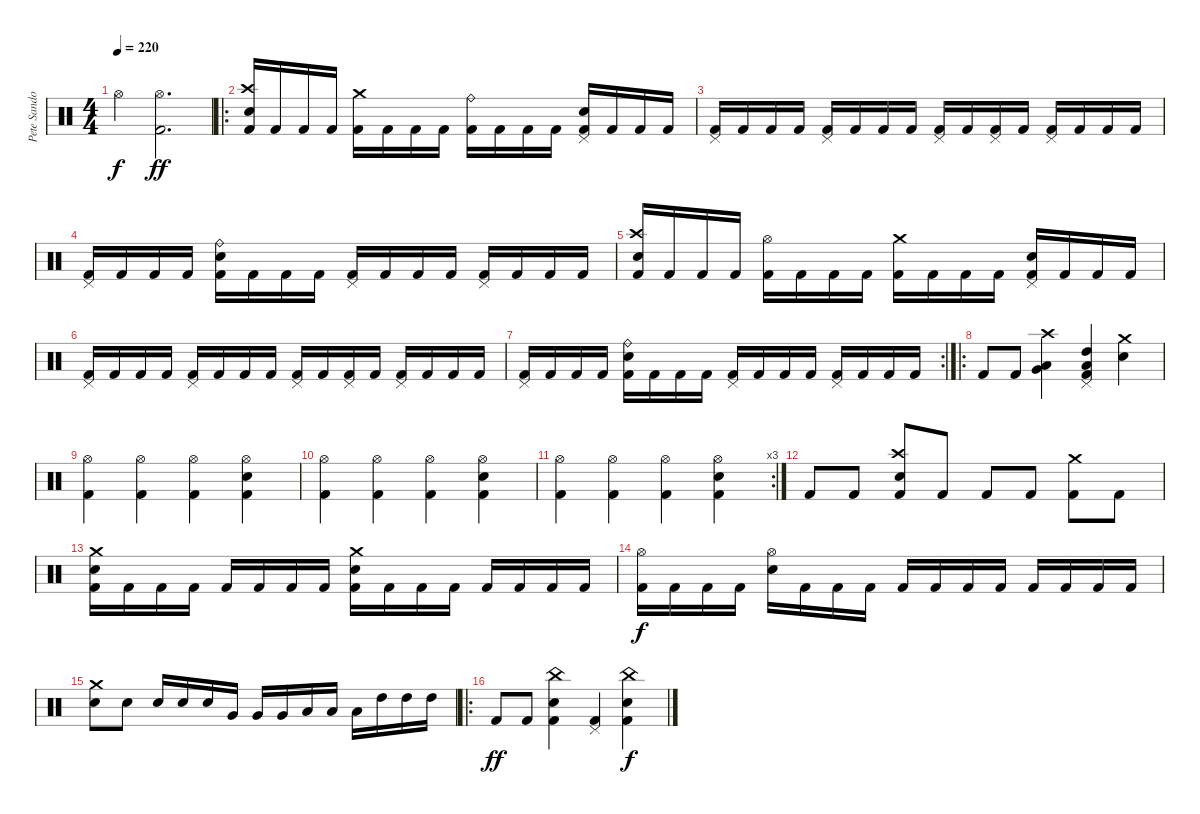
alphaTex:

\track ("Pete Sandoval" "Pete Sando") {instrument percussion}
\staff {score}
\articulation defaults
\ts (4 4)
\tempo 220
\clef neutral
\ks c "Hi-Hat (open)"{t}.4{dy f}
("Hi-Hat (open)" "Kick (hit) 2").2{d dy ff} |
\ro
("Crash high (hit)" "Electric Snare (hit)" "Kick (hit) 2").16 "Kick (hit) 2".16 "Kick (hit) 2".16 "Kick (hit) 2".16 ("Crash medium (hit)" "Kick (hit) 2").16 "Kick (hit) 2".16 "Kick (hit) 2".16 "Kick (hit) 2".16 ("Ride (bell)" "Kick (hit) 2").16 "Kick (hit) 2".16 "Kick (hit) 2".16 "Kick (hit) 2".16 ("Pedal Hi-Hat (hit)" "Electric Snare (hit)" "Kick (hit) 2").16 "Kick (hit) 2".16 "Kick (hit) 2".16 "Kick (hit) 2".16 |
("Pedal Hi-Hat (hit)" "Kick (hit) 2").16 "Kick (hit) 2".16 "Kick (hit) 2".16 "Kick (hit) 2".16 ("Pedal Hi-Hat (hit)" "Kick (hit) 2").16 "Kick (hit) 2".16 "Kick (hit) 2".16 "Kick (hit) 2".16 ("Pedal Hi-Hat (hit)" "Kick (hit) 2").16 "Kick (hit) 2".16 ("Pedal Hi-Hat (hit)" "Kick (hit) 2").16 "Kick (hit) 2".16 ("Pedal Hi-Hat (hit)" "Kick (hit) 2").16 "Kick (hit) 2".16 "Kick (hit) 2".16 "Kick (hit) 2".16 |
("Pedal Hi-Hat (hit)" "Kick (hit) 2").16 "Kick (hit) 2".16 "Kick (hit) 2".16 "Kick (hit) 2".16 ("Ride (bell)" "Electric Snare (hit)" "Kick (hit) 2").16 "Kick (hit) 2".16 "Kick (hit) 2".16 "Kick (hit) 2".16 ("Pedal Hi-Hat (hit)" "Kick (hit) 2").16 "Kick (hit) 2".16 "Kick (hit) 2".16 "Kick (hit) 2".16 ("Pedal Hi-Hat (hit)" "Kick (hit) 2").16 "Kick (hit) 2".16 "Kick (hit) 2".16 "Kick (hit) 2".16 |
("Crash high (hit)" "Electric Snare (hit)" "Kick (hit) 2").16 "Kick (hit) 2".16 "Kick (hit) 2".16 "Kick (hit) 2".16 ("Hi-Hat (open)" "Kick (hit) 2").16 "Kick (hit) 2".16 "Kick (hit) 2".16 "Kick (hit) 2".16 ("Crash medium (hit)" "Kick (hit) 2").16 "Kick (hit) 2".16 "Kick (hit) 2".16 "Kick (hit) 2".16 ("Pedal Hi-Hat (hit)" "Electric Snare (hit)" "Kick (hit) 2").16 "Kick (hit) 2".16 "Kick (hit) 2".16 "Kick (hit) 2".16 |
("Pedal Hi-Hat (hit)" "Kick (hit) 2").16 "Kick (hit) 2".16 "Kick (hit) 2".16 "Kick (hit) 2".16 ("Pedal Hi-Hat (hit)" "Kick (hit) 2").16 "Kick (hit) 2".16 "Kick (hit) 2".16 "Kick (hit) 2".16 ("Pedal Hi-Hat (hit)" "Kick (hit) 2").16 "Kick (hit) 2".16 ("Pedal Hi-Hat (hit)" "Kick (hit) 2").16 "Kick (hit) 2".16 ("Pedal Hi-Hat (hit)" "Kick (hit) 2").16 "Kick (hit) 2".16 "Kick (hit) 2".16 "Kick (hit) 2".16 |
\rc 2
("Pedal Hi-Hat (hit)" "Kick (hit) 2").16 "Kick (hit) 2".16 "Kick (hit) 2".16 "Kick (hit) 2".16 ("Ride (bell)" "Electric Snare (hit)" "Kick (hit) 2").16 "Kick (hit) 2".16 "Kick (hit) 2".16 "Kick (hit) 2".16 ("Pedal Hi-Hat (hit)" "Kick (hit) 2").16 "Kick (hit) 2".16 "Kick (hit) 2".16 "Kick (hit) 2".16 ("Pedal Hi-Hat (hit)" "Kick (hit) 2").16 "Kick (hit) 2".16 "Kick (hit) 2".16 "Kick (hit) 2".16 |
\ro "Kick (hit) 2".8 "Kick (hit) 2".8
("Crash high (hit)" "Low Tom (hit)" "Very Low Tom (hit)").4 ("Pedal Hi-Hat (hit)" "High Tom (hit)" "Low Tom (hit)" "Kick (hit) 2").4 ("Crash medium (hit)" "Electric Snare (hit)").4 |
("Hi-Hat (open)" "Kick (hit) 2").4 ("Hi-Hat (open)" "Kick (hit) 2").4 ("Hi-Hat (open)" "Kick (hit) 2").4 ("Hi-Hat (open)" "Electric Snare (hit)" "Kick (hit) 2").4 |
("Hi-Hat (open)" "Kick (hit) 2").4 ("Hi-Hat (open)" "Kick (hit) 2").4 ("Hi-Hat (open)" "Kick (hit) 2").4 ("Hi-Hat (open)" "Electric Snare (hit)" "Kick (hit) 2").4 |
\rc 3
("Hi-Hat (open)" "Kick (hit) 2").4 ("Hi-Hat (open)" "Kick (hit) 2").4 ("Hi-Hat (open)" "Kick (hit) 2").4 ("Hi-Hat (open)" "Electric Snare (hit)" "Kick (hit) 2").4 |
"Kick (hit) 2".8 "Kick (hit) 2".8 ("Crash high (hit)" "Electric Snare (hit)" "Kick (hit) 2").8 "Kick (hit) 2".8 "Kick (hit) 2".8 "Kick (hit) 2".8 ("Crash medium (hit)" "Kick (hit) 2").8 "Kick (hit) 2".8 |
("Crash medium (hit)" "Electric Snare (hit)" "Kick (hit) 2").16 "Kick (hit) 2".16 "Kick (hit) 2".16 "Kick (hit) 2".16 "Kick (hit) 2".16 "Kick (hit) 2".16 "Kick (hit) 2".16 "Kick (hit) 2".16 ("Crash medium (hit)" "Electric Snare (hit)" "Kick (hit) 2").16 "Kick (hit) 2".16 "Kick (hit) 2".16 "Kick (hit) 2".16 "Kick (hit) 2".16 "Kick (hit) 2".16 "Kick (hit) 2".16 "Kick (hit) 2".16 |
("Hi-Hat (open)" "Kick (hit) 2").16{dy f} "Kick (hit) 2".16 "Kick (hit) 2".16 "Kick (hit) 2".16 ("Hi-Hat (open)" "Electric Snare (hit)").16 "Kick (hit) 2".16 "Kick (hit) 2".16 "Kick (hit) 2".16 "Kick (hit) 2".16 "Kick (hit) 2".16 "Kick (hit) 2".16 "Kick (hit) 2".16 "Kick (hit) 2".16 "Kick (hit) 2".16 "Kick (hit) 2".16 "Kick (hit) 2".16 |
("Crash medium (hit)" "Electric Snare (hit)").8 "Electric Snare (hit)".8 "Electric Snare (hit)".16 "Electric Snare (hit)".16 "Electric Snare (hit)".16 "Very Low Tom (hit)".16 "Very Low Tom (hit)".16 "Very Low Tom (hit)".16 "Low Tom (hit)".16 "Low Tom (hit)".16 "Low Tom (hit)".16 "High Tom (hit)".16 "High Tom (hit)".16 "High Tom (hit)".16 |
\ro "Kick (hit) 2".8{dy ff} "Kick (hit) 2".8
("China (hit)" "Electric Snare (hit)" "Kick (hit) 2").4 ("Pedal Hi-Hat (hit)" "Kick (hit) 2").4 ("China (hit)" "Electric Snare (hit)" "Kick (hit) 2").4{dy f}
